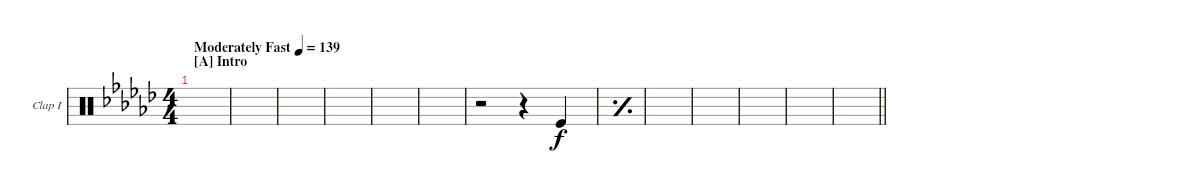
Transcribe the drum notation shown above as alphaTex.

\bracketExtendMode groupsimilarinstruments
\firstSystemTrackNameOrientation horizontal
\otherSystemsTrackNameOrientation horizontal
\defaultBarNumberDisplay FirstOfSystem
\track ("Hand Clap I" "Clap I") {instrument percussion}
\staff {score}
\articulation defaults
\ts (4 4)
\beaming (8 2 2 2 2)
\section ("A" "Intro")
\tempo (139 "Moderately Fast")
\clef neutral
\ks gb
|
|
|
|
|
|
r.2 r.4 "Kick (hit)".4 |
\simile simple
|
|
|
|
|
\barLineRight lightlight
